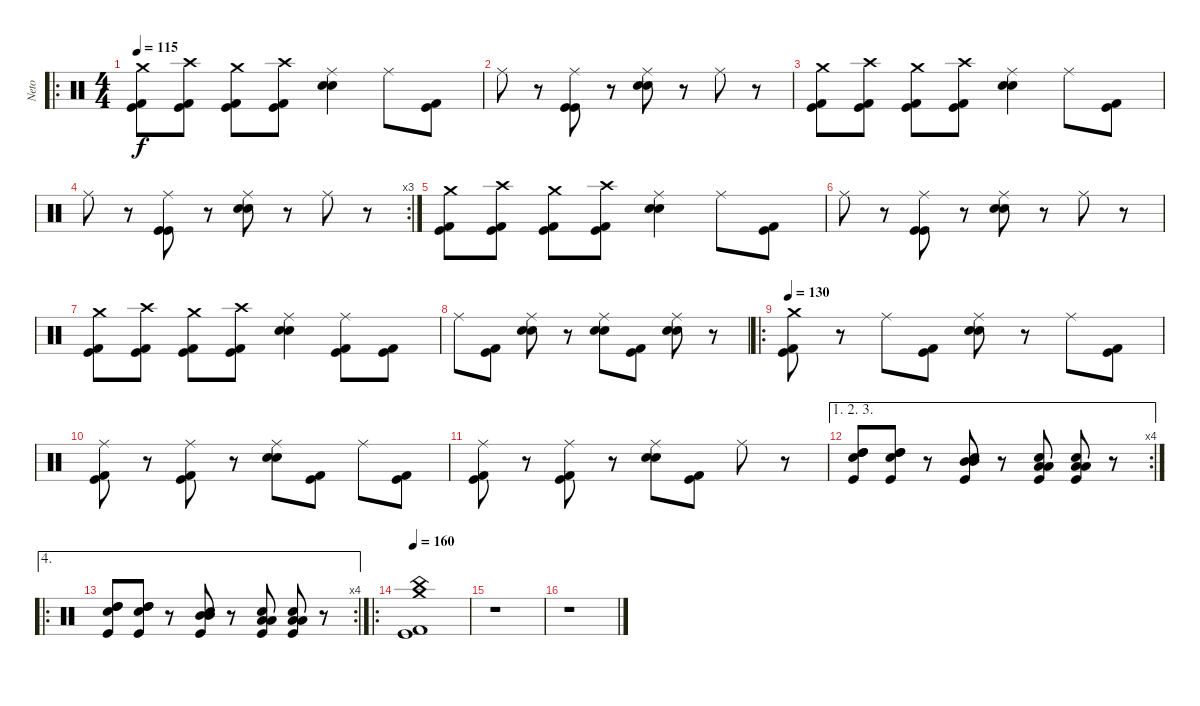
\track ("Neto" "Neto") {instrument percussion}
\staff {score}
\articulation defaults
\ro
\ts (4 4)
\tempo 115
\clef neutral
\ks c
("Crash medium (hit)" "Kick (hit)" "Kick (hit) 2").8{dy f} ("Crash high (hit)" "Kick (hit)" "Kick (hit) 2").8 ("Crash medium (hit)" "Kick (hit)" "Kick (hit) 2").8 ("Crash high (hit)" "Kick (hit)" "Kick (hit) 2").8 ("Ride (middle)" "Snare (hit) 2" "Snare (hit) 2").4 "Ride (middle)".8 ("Kick (hit)" "Kick (hit) 2").8 |
"Ride (middle)".8 r.8 ("Ride (middle)" "Kick (hit)" "Kick (hit)").8 r.8 ("Ride (middle)" "Snare (hit) 2" "Snare (hit) 2").8 r.8 "Ride (middle)".8 r.8 |
("Crash medium (hit)" "Kick (hit)" "Kick (hit) 2").8 ("Crash high (hit)" "Kick (hit)" "Kick (hit) 2").8 ("Crash medium (hit)" "Kick (hit)" "Kick (hit) 2").8 ("Crash high (hit)" "Kick (hit)" "Kick (hit) 2").8 ("Ride (middle)" "Snare (hit) 2" "Snare (hit) 2").4 "Ride (middle)".8 ("Kick (hit)" "Kick (hit) 2").8 |
\rc 3 "Ride (middle)".8
r.8 ("Ride (middle)" "Kick (hit)" "Kick (hit)").8 r.8 ("Ride (middle)" "Snare (hit) 2" "Snare (hit) 2").8 r.8 "Ride (middle)".8 r.8 |
("Crash medium (hit)" "Kick (hit)" "Kick (hit) 2").8 ("Crash high (hit)" "Kick (hit)" "Kick (hit) 2").8 ("Crash medium (hit)" "Kick (hit)" "Kick (hit) 2").8 ("Crash high (hit)" "Kick (hit)" "Kick (hit) 2").8 ("Ride (middle)" "Snare (hit) 2" "Snare (hit) 2").4 "Ride (middle)".8 ("Kick (hit)" "Kick (hit) 2").8 |
"Ride (middle)".8 r.8 ("Ride (middle)" "Kick (hit)" "Kick (hit)").8 r.8 ("Ride (middle)" "Snare (hit) 2" "Snare (hit) 2").8 r.8 "Ride (middle)".8 r.8 |
("Crash medium (hit)" "Kick (hit)" "Kick (hit) 2").8 ("Crash high (hit)" "Kick (hit)" "Kick (hit) 2").8 ("Crash medium (hit)" "Kick (hit)" "Kick (hit) 2").8 ("Crash high (hit)" "Kick (hit)" "Kick (hit) 2").8 ("Ride (middle)" "Snare (hit) 2" "Snare (hit) 2").4 ("Ride (middle)" "Kick (hit)" "Kick (hit) 2").8 ("Kick (hit)" "Kick (hit) 2").8 |
"Ride (middle)".8 ("Kick (hit)" "Kick (hit) 2").8 ("Ride (middle)" "Snare (hit) 2" "Snare (hit) 2").8 r.8 ("Ride (middle)" "Snare (hit) 2" "Snare (hit) 2").8 ("Kick (hit)" "Kick (hit) 2").8 ("Ride (middle)" "Snare (hit) 2" "Snare (hit) 2").8 r.8 |
\ro
\tempo 130
("Crash medium (hit)" "Kick (hit)" "Kick (hit) 2").8 r.8 "Ride (middle)".8 ("Kick (hit)" "Kick (hit) 2").8 ("Ride (middle)" "Snare (hit) 2" "Snare (hit) 2").8 r.8 "Ride (middle)".8 ("Kick (hit)" "Kick (hit) 2").8 |
("Ride (middle)" "Kick (hit)" "Kick (hit) 2").8 r.8 ("Ride (middle)" "Kick (hit)" "Kick (hit) 2").8 r.8 ("Ride (middle)" "Snare (hit) 2" "Snare (hit) 2").8 ("Kick (hit)" "Kick (hit) 2").8 "Ride (middle)".8 ("Kick (hit)" "Kick (hit) 2").8 |
("Ride (middle)" "Kick (hit)" "Kick (hit) 2").8 r.8 ("Ride (middle)" "Kick (hit)" "Kick (hit) 2").8 r.8 ("Ride (middle)" "Snare (hit) 2" "Snare (hit) 2").8 ("Kick (hit)" "Kick (hit) 2").8 "Ride (middle)".8 r.8 |
\ae (1 2 3)
\rc 4
("High Tom (hit)" "High Tom (hit)" "Snare (hit) 2" "Kick (hit)").8 ("High Tom (hit)" "High Tom (hit)" "Snare (hit) 2" "Kick (hit)").8 r.8 ("Mid Tom (hit)" "Mid Tom (hit)" "Snare (hit) 2" "Kick (hit)").8 r.8 ("Low Tom (hit)" "Low Tom (hit)" "Snare (hit) 2" "Kick (hit)").8 ("Low Tom (hit)" "Low Tom (hit)" "Snare (hit) 2" "Kick (hit)").8 r.8 |
\ae 4
\ro
\rc 4
("High Tom (hit)" "High Tom (hit)" "Snare (hit) 2" "Kick (hit)").8 ("High Tom (hit)" "High Tom (hit)" "Snare (hit) 2" "Kick (hit)").8 r.8 ("Mid Tom (hit)" "Mid Tom (hit)" "Snare (hit) 2" "Kick (hit)").8 r.8 ("Low Tom (hit)" "Low Tom (hit)" "Snare (hit) 2" "Kick (hit)").8 ("Low Tom (hit)" "Low Tom (hit)" "Snare (hit) 2" "Kick (hit)").8 r.8 |
\ro
\tempo 160
("China (hit)" "Crash medium (hit)" "Kick (hit)" "Kick (hit) 2").1 |
r.1 |
r.1
